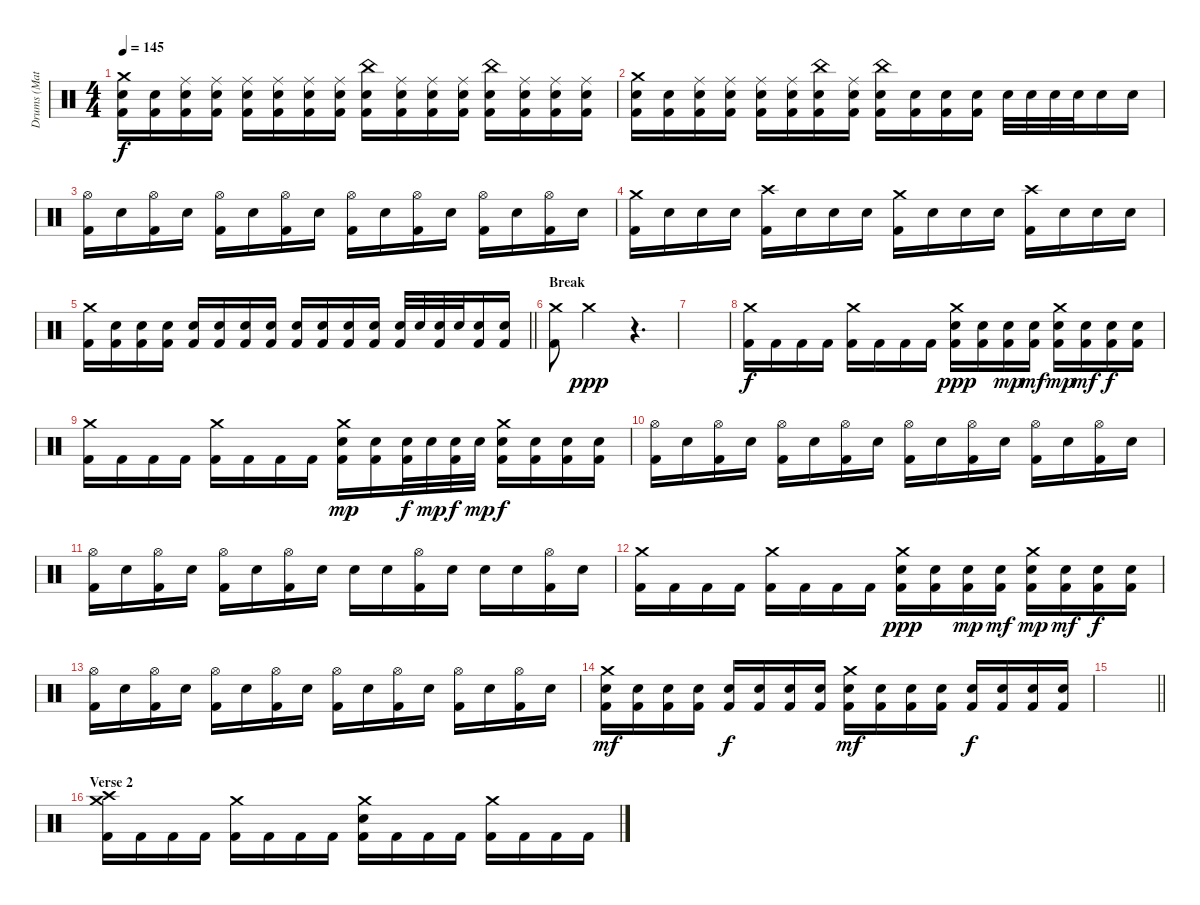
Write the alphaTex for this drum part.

\track ("Drums (Matt Kuykendall)" "Drums (Mat") {instrument percussion}
\staff {score}
\articulation defaults
\ts (4 4)
\tempo 145
\clef neutral
\ks c
("Crash medium (hit)" "Electric Snare (hit)" "Kick (hit) 2").16{dy f} ("Electric Snare (hit)" "Kick (hit) 2").16 ("Ride (middle)" "Electric Snare (hit)" "Kick (hit) 2").16 ("Ride (middle)" "Electric Snare (hit)" "Kick (hit) 2").16 ("Ride (middle)" "Electric Snare (hit)" "Kick (hit) 2").16 ("Ride (middle)" "Electric Snare (hit)" "Kick (hit) 2").16 ("Ride (middle)" "Electric Snare (hit)" "Kick (hit) 2").16 ("Ride (middle)" "Electric Snare (hit)" "Kick (hit) 2").16 ("China (hit)" "Electric Snare (hit)" "Kick (hit) 2").16 ("Ride (middle)" "Electric Snare (hit)" "Kick (hit) 2").16 ("Ride (middle)" "Electric Snare (hit)" "Kick (hit) 2").16 ("Ride (middle)" "Electric Snare (hit)" "Kick (hit) 2").16 ("China (hit)" "Electric Snare (hit)" "Kick (hit) 2").16 ("Ride (middle)" "Electric Snare (hit)" "Kick (hit) 2").16 ("Ride (middle)" "Electric Snare (hit)" "Kick (hit) 2").16 ("Ride (middle)" "Electric Snare (hit)" "Kick (hit) 2").16 |
("Crash medium (hit)" "Electric Snare (hit)" "Kick (hit) 2").16 ("Electric Snare (hit)" "Kick (hit) 2").16 ("Ride (middle)" "Electric Snare (hit)" "Kick (hit) 2").16 ("Ride (middle)" "Electric Snare (hit)" "Kick (hit) 2").16 ("Ride (middle)" "Electric Snare (hit)" "Kick (hit) 2").16 ("Ride (middle)" "Electric Snare (hit)" "Kick (hit) 2").16 ("China (hit)" "Electric Snare (hit)" "Kick (hit) 2").16 ("Ride (middle)" "Electric Snare (hit)" "Kick (hit) 2").16 ("China (hit)" "Electric Snare (hit)" "Kick (hit) 2").16 ("Electric Snare (hit)" "Kick (hit) 2").16 ("Electric Snare (hit)" "Kick (hit) 2").16 ("Electric Snare (hit)" "Kick (hit) 2").16 "Electric Snare (hit)".32 "Electric Snare (hit)".32 "Electric Snare (hit)".32 "Electric Snare (hit)".32 "Electric Snare (hit)".16 "Electric Snare (hit)".16 |
("Hi-Hat (open)" "Kick (hit) 2").16 "Electric Snare (hit)".16 ("Hi-Hat (open)" "Kick (hit) 2").16 "Electric Snare (hit)".16 ("Hi-Hat (open)" "Kick (hit) 2").16 "Electric Snare (hit)".16 ("Hi-Hat (open)" "Kick (hit) 2").16 "Electric Snare (hit)".16 ("Hi-Hat (open)" "Kick (hit) 2").16 "Electric Snare (hit)".16 ("Hi-Hat (open)" "Kick (hit) 2").16 "Electric Snare (hit)".16 ("Hi-Hat (open)" "Kick (hit) 2").16 "Electric Snare (hit)".16 ("Hi-Hat (open)" "Kick (hit) 2").16 "Electric Snare (hit)".16 |
("Crash medium (hit)" "Kick (hit) 2").16 "Electric Snare (hit)".16 "Electric Snare (hit)".16 "Electric Snare (hit)".16 ("Crash high (hit)" "Kick (hit) 2").16 "Electric Snare (hit)".16 "Electric Snare (hit)".16 "Electric Snare (hit)".16 ("Crash medium (hit)" "Kick (hit) 2").16 "Electric Snare (hit)".16 "Electric Snare (hit)".16 "Electric Snare (hit)".16 ("Crash high (hit)" "Kick (hit) 2").16 "Electric Snare (hit)".16 "Electric Snare (hit)".16 "Electric Snare (hit)".16 |
\barLineRight lightlight
("Crash medium (hit)" "Kick (hit) 2").16 ("Electric Snare (hit)" "Kick (hit) 2").16 ("Electric Snare (hit)" "Kick (hit) 2").16 ("Electric Snare (hit)" "Kick (hit) 2").16 ("Electric Snare (hit)" "Kick (hit) 2").16 ("Electric Snare (hit)" "Kick (hit) 2").16 ("Electric Snare (hit)" "Kick (hit) 2").16 ("Electric Snare (hit)" "Kick (hit) 2").16 ("Electric Snare (hit)" "Kick (hit) 2").16 ("Electric Snare (hit)" "Kick (hit) 2").16 ("Electric Snare (hit)" "Kick (hit) 2").16 ("Electric Snare (hit)" "Kick (hit) 2").16 ("Electric Snare (hit)" "Kick (hit) 2").32 "Electric Snare (hit)".32 ("Electric Snare (hit)" "Kick (hit) 2").32 "Electric Snare (hit)".32 ("Electric Snare (hit)" "Kick (hit) 2").16 ("Electric Snare (hit)" "Kick (hit) 2").16 |
\section ("" "Break")
("Crash medium (hit)" "Kick (hit) 2").8 "Crash medium (hit)".2{dy ppp} r.4{d} |
|
("Crash medium (hit)" "Kick (hit) 2").16{dy f} "Kick (hit) 2".16 "Kick (hit) 2".16 "Kick (hit) 2".16 ("Crash medium (hit)" "Kick (hit) 2").16 "Kick (hit) 2".16 "Kick (hit) 2".16 "Kick (hit) 2".16 ("Crash medium (hit)" "Electric Snare (hit)" "Kick (hit) 2").16{dy ppp} ("Electric Snare (hit)" "Kick (hit) 2").16 ("Electric Snare (hit)" "Kick (hit) 2").16{dy mp} ("Electric Snare (hit)" "Kick (hit) 2").16{dy mf} ("Crash medium (hit)" "Electric Snare (hit)" "Kick (hit) 2").16{dy mp} ("Electric Snare (hit)" "Kick (hit) 2").16{dy mf} ("Electric Snare (hit)" "Kick (hit) 2").16{dy f} ("Electric Snare (hit)" "Kick (hit) 2").16 |
("Crash medium (hit)" "Kick (hit) 2").16 "Kick (hit) 2".16 "Kick (hit) 2".16 "Kick (hit) 2".16 ("Crash medium (hit)" "Kick (hit) 2").16 "Kick (hit) 2".16 "Kick (hit) 2".16 "Kick (hit) 2".16 ("Crash medium (hit)" "Electric Snare (hit)" "Kick (hit) 2").16{dy mp} ("Electric Snare (hit)" "Kick (hit) 2").16 ("Electric Snare (hit)" "Kick (hit) 2").32{dy f} "Electric Snare (hit)".32{dy mp} ("Electric Snare (hit)" "Kick (hit) 2").32{dy f} "Electric Snare (hit)".32{dy mp} ("Crash medium (hit)" "Electric Snare (hit)" "Kick (hit) 2").16{dy f} ("Electric Snare (hit)" "Kick (hit) 2").16 ("Electric Snare (hit)" "Kick (hit) 2").16 ("Electric Snare (hit)" "Kick (hit) 2").16 |
("Hi-Hat (open)" "Kick (hit) 2").16 "Electric Snare (hit)".16 ("Hi-Hat (open)" "Kick (hit) 2").16 "Electric Snare (hit)".16 ("Hi-Hat (open)" "Kick (hit) 2").16 "Electric Snare (hit)".16 ("Hi-Hat (open)" "Kick (hit) 2").16 "Electric Snare (hit)".16 ("Hi-Hat (open)" "Kick (hit) 2").16 "Electric Snare (hit)".16 ("Hi-Hat (open)" "Kick (hit) 2").16 "Electric Snare (hit)".16 ("Hi-Hat (open)" "Kick (hit) 2").16 "Electric Snare (hit)".16 ("Hi-Hat (open)" "Kick (hit) 2").16 "Electric Snare (hit)".16 |
("Hi-Hat (open)" "Kick (hit) 2").16 "Electric Snare (hit)".16 ("Hi-Hat (open)" "Kick (hit) 2").16 "Electric Snare (hit)".16 ("Hi-Hat (open)" "Kick (hit) 2").16 "Electric Snare (hit)".16 ("Hi-Hat (open)" "Kick (hit) 2").16 "Electric Snare (hit)".16 "Electric Snare (hit)".16 "Electric Snare (hit)".16 ("Hi-Hat (open)" "Kick (hit) 2").16 "Electric Snare (hit)".16 "Electric Snare (hit)".16 "Electric Snare (hit)".16 ("Hi-Hat (open)" "Kick (hit) 2").16 "Electric Snare (hit)".16 |
("Crash medium (hit)" "Kick (hit) 2").16 "Kick (hit) 2".16 "Kick (hit) 2".16 "Kick (hit) 2".16 ("Crash medium (hit)" "Kick (hit) 2").16 "Kick (hit) 2".16 "Kick (hit) 2".16 "Kick (hit) 2".16 ("Crash medium (hit)" "Electric Snare (hit)" "Kick (hit) 2").16{dy ppp} ("Electric Snare (hit)" "Kick (hit) 2").16 ("Electric Snare (hit)" "Kick (hit) 2").16{dy mp} ("Electric Snare (hit)" "Kick (hit) 2").16{dy mf} ("Crash medium (hit)" "Electric Snare (hit)" "Kick (hit) 2").16{dy mp} ("Electric Snare (hit)" "Kick (hit) 2").16{dy mf} ("Electric Snare (hit)" "Kick (hit) 2").16{dy f} ("Electric Snare (hit)" "Kick (hit) 2").16 |
("Hi-Hat (open)" "Kick (hit) 2").16 "Electric Snare (hit)".16 ("Hi-Hat (open)" "Kick (hit) 2").16 "Electric Snare (hit)".16 ("Hi-Hat (open)" "Kick (hit) 2").16 "Electric Snare (hit)".16 ("Hi-Hat (open)" "Kick (hit) 2").16 "Electric Snare (hit)".16 ("Hi-Hat (open)" "Kick (hit) 2").16 "Electric Snare (hit)".16 ("Hi-Hat (open)" "Kick (hit) 2").16 "Electric Snare (hit)".16 ("Hi-Hat (open)" "Kick (hit) 2").16 "Electric Snare (hit)".16 ("Hi-Hat (open)" "Kick (hit) 2").16 "Electric Snare (hit)".16 |
("Crash medium (hit)" "Electric Snare (hit)" "Kick (hit) 2").16{dy mf} ("Electric Snare (hit)" "Kick (hit) 2").16 ("Electric Snare (hit)" "Kick (hit) 2").16 ("Electric Snare (hit)" "Kick (hit) 2").16 ("Electric Snare (hit)" "Kick (hit) 2").16{dy f} ("Electric Snare (hit)" "Kick (hit) 2").16 ("Electric Snare (hit)" "Kick (hit) 2").16 ("Electric Snare (hit)" "Kick (hit) 2").16 ("Crash medium (hit)" "Electric Snare (hit)" "Kick (hit) 2").16{dy mf} ("Electric Snare (hit)" "Kick (hit) 2").16 ("Electric Snare (hit)" "Kick (hit) 2").16 ("Electric Snare (hit)" "Kick (hit) 2").16 ("Electric Snare (hit)" "Kick (hit) 2").16{dy f} ("Electric Snare (hit)" "Kick (hit) 2").16 ("Electric Snare (hit)" "Kick (hit) 2").16 ("Electric Snare (hit)" "Kick (hit) 2").16 |
\barLineRight lightlight
|
\section ("" "Verse 2")
("Crash medium (hit)" "Crash high (hit)" "Kick (hit) 2").16 "Kick (hit) 2".16 "Kick (hit) 2".16 "Kick (hit) 2".16 ("Crash medium (hit)" "Kick (hit) 2").16 "Kick (hit) 2".16 "Kick (hit) 2".16 "Kick (hit) 2".16 ("Crash medium (hit)" "Electric Snare (hit)" "Kick (hit) 2").16 "Kick (hit) 2".16 "Kick (hit) 2".16 "Kick (hit) 2".16 ("Crash medium (hit)" "Kick (hit) 2").16 "Kick (hit) 2".16 "Kick (hit) 2".16 "Kick (hit) 2".16
